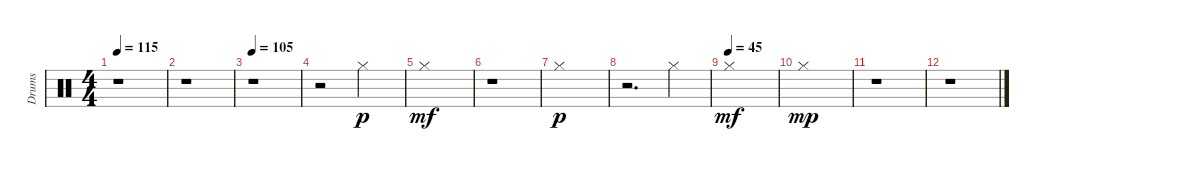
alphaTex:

\track ("Drums" "Drums") {instrument percussion}
\staff {score}
\articulation defaults
\ts (4 4)
\tempo 115
\clef neutral
\ks c
r.1{dy ff} |
r.1 |
\tempo 105
r.1 |
r.2 "Hi-Hat (closed)".2{dy p balance 13} |
"Hi-Hat (closed)".1{dy mf balance 16} |
r.1 |
"Hi-Hat (closed)".1{dy p balance 16} |
r.2{d} "Hi-Hat (closed)".4{balance 5} |
\tempo (45)
"Hi-Hat (closed)".1{dy mf balance 0} |
"Hi-Hat (closed)".1{dy mp balance 11} |
r.1 |
r.1
